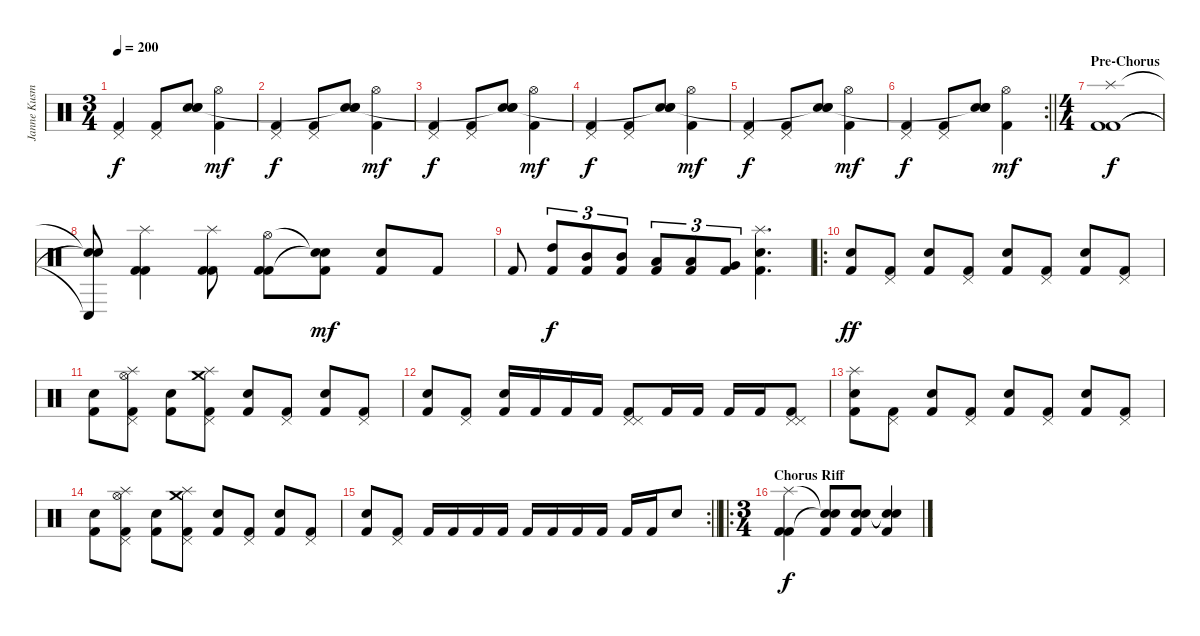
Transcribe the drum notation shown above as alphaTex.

\track ("Janne Kusmin" "Janne Kusm") {instrument percussion}
\staff {score}
\articulation defaults
\ts (3 4)
\tempo 200
\clef neutral
\ks c
("Pedal Hi-Hat (hit)" "Kick (hit) 2").4{dy f} ("Pedal Hi-Hat (hit)" "Kick (hit) 2").8 ("Snare (hit) 2" "Snare (hit) 2" "Snare (hit) 2"{t}).8 ("Hi-Hat (open)" "Kick (hit) 2").4{dy mf} |
("Pedal Hi-Hat (hit)" "Kick (hit) 2").4{dy f} ("Pedal Hi-Hat (hit)" "Kick (hit) 2").8 ("Snare (hit) 2" "Snare (hit) 2" "Snare (hit) 2"{t}).8 ("Hi-Hat (open)" "Kick (hit) 2").4{dy mf} |
("Pedal Hi-Hat (hit)" "Kick (hit) 2").4{dy f} ("Pedal Hi-Hat (hit)" "Kick (hit) 2").8 ("Snare (hit) 2" "Snare (hit) 2" "Snare (hit) 2"{t}).8 ("Hi-Hat (open)" "Kick (hit) 2").4{dy mf} |
("Pedal Hi-Hat (hit)" "Kick (hit) 2").4{dy f} ("Pedal Hi-Hat (hit)" "Kick (hit) 2").8 ("Snare (hit) 2" "Snare (hit) 2" "Snare (hit) 2"{t}).8 ("Hi-Hat (open)" "Kick (hit) 2").4{dy mf} |
("Pedal Hi-Hat (hit)" "Kick (hit) 2").4{dy f} ("Pedal Hi-Hat (hit)" "Kick (hit) 2").8 ("Snare (hit) 2" "Snare (hit) 2" "Snare (hit) 2"{t}).8 ("Hi-Hat (open)" "Kick (hit) 2").4{dy mf} |
\rc 2
\barLineRight lightlight
("Pedal Hi-Hat (hit)" "Kick (hit) 2").4{dy f} ("Pedal Hi-Hat (hit)" "Kick (hit) 2").8 ("Snare (hit) 2" "Snare (hit) 2" "Snare (hit) 2"{t}).8 ("Hi-Hat (open)" "Kick (hit) 2").4{dy mf} |
\ts (4 4)
\section ("" "Pre-Chorus")
("Splash (hit)" "Kick (hit) 2" "Kick (hit) 2").1{dy f} |
("Snare (hit)"{t} "Snare (hit)"{t} "Conga low (hit)"{t}).8 ("Splash (hit)" "Kick (hit) 2" "Kick (hit) 2").4 ("Splash (hit)" "Kick (hit) 2" "Kick (hit) 2").8 ("Hi-Hat (open)" "Kick (hit) 2" "Kick (hit) 2").8 ("Snare (hit)"{t} "Snare (hit)"{t} "Kick (hit) 2").8{dy mf} ("Snare (hit) 2" "Kick (hit) 2").8 "Kick (hit) 2".8 |
"Kick (hit) 2".8 ("High Tom (hit)" "Kick (hit) 2").8{tu (3 2) dy f} ("Mid Tom (hit)" "Kick (hit) 2").8{tu (3 2)} ("Mid Tom (hit)" "Kick (hit) 2").8{tu (3 2)} ("Low Tom (hit)" "Kick (hit) 2").8{tu (3 2)} ("Low Tom (hit)" "Kick (hit) 2").8{tu (3 2)} ("Very Low Tom (hit)" "Kick (hit) 2").8{tu (3 2)} ("Splash (hit)" "Snare (hit) 2" "Kick (hit) 2").4{d} |
\ro
("Snare (hit) 2" "Kick (hit) 2").8{dy ff} ("Pedal Hi-Hat (hit)" "Kick (hit) 2").8 ("Snare (hit) 2" "Kick (hit) 2").8 ("Pedal Hi-Hat (hit)" "Kick (hit) 2").8 ("Snare (hit) 2" "Kick (hit) 2").8 ("Pedal Hi-Hat (hit)" "Kick (hit) 2").8 ("Snare (hit) 2" "Kick (hit) 2").8 ("Pedal Hi-Hat (hit)" "Kick (hit) 2").8 |
("Snare (hit) 2" "Kick (hit) 2").8 ("Splash (hit)" "Hi-Hat (open)" "Pedal Hi-Hat (hit)" "Kick (hit) 2").8 ("Snare (hit) 2" "Kick (hit) 2").8 ("Crash medium (hit)" "Splash (hit)" "Pedal Hi-Hat (hit)" "Kick (hit) 2").8 ("Snare (hit) 2" "Kick (hit) 2").8 ("Pedal Hi-Hat (hit)" "Kick (hit) 2").8 ("Snare (hit) 2" "Kick (hit) 2").8 ("Pedal Hi-Hat (hit)" "Kick (hit) 2").8 |
("Snare (hit) 2" "Kick (hit) 2").8 ("Pedal Hi-Hat (hit)" "Kick (hit) 2").8 ("Snare (hit) 2" "Kick (hit) 2").16 "Kick (hit) 2".16 "Kick (hit) 2".16 "Kick (hit) 2".16 ("Pedal Hi-Hat (hit)" "Pedal Hi-Hat (hit)" "Kick (hit) 2").8 "Kick (hit) 2".16 "Kick (hit) 2".16 "Kick (hit) 2".16 "Kick (hit) 2".16 ("Pedal Hi-Hat (hit)" "Pedal Hi-Hat (hit)" "Kick (hit) 2").8 |
("Splash (hit)" "Snare (hit) 2" "Kick (hit) 2").8 ("Pedal Hi-Hat (hit)" "Kick (hit) 2").8 ("Snare (hit) 2" "Kick (hit) 2").8 ("Pedal Hi-Hat (hit)" "Kick (hit) 2").8 ("Snare (hit) 2" "Kick (hit) 2").8 ("Pedal Hi-Hat (hit)" "Kick (hit) 2").8 ("Snare (hit) 2" "Kick (hit) 2").8 ("Pedal Hi-Hat (hit)" "Kick (hit) 2").8 |
("Snare (hit) 2" "Kick (hit) 2").8 ("Splash (hit)" "Hi-Hat (open)" "Pedal Hi-Hat (hit)" "Kick (hit) 2").8 ("Snare (hit) 2" "Kick (hit) 2").8 ("Crash medium (hit)" "Splash (hit)" "Pedal Hi-Hat (hit)" "Kick (hit) 2").8 ("Snare (hit) 2" "Kick (hit) 2").8 ("Pedal Hi-Hat (hit)" "Kick (hit) 2").8 ("Snare (hit) 2" "Kick (hit) 2").8 ("Pedal Hi-Hat (hit)" "Kick (hit) 2").8 |
\rc 2
\barLineRight lightlight
("Snare (hit) 2" "Kick (hit) 2").8 ("Pedal Hi-Hat (hit)" "Kick (hit) 2").8 "Kick (hit) 2".16 "Kick (hit) 2".16 "Kick (hit) 2".16 "Kick (hit) 2".16 "Kick (hit) 2".16 "Kick (hit) 2".16 "Kick (hit) 2".16 "Kick (hit) 2".16 "Kick (hit) 2".16 "Kick (hit) 2".16 "Snare (hit) 2".8 |
\ro
\ts (3 4)
\section ("" "Chorus Riff")
("Splash (hit)" "Kick (hit) 2" "Kick (hit) 2").4{dy f} ("Snare (hit)"{t} "Snare (hit)"{t} "Kick (hit) 2").8 ("Snare (hit) 2" "Snare (hit) 2" "Kick (hit) 2").8 ("Snare (hit)"{t} "Snare (hit)"{t} "Kick (hit) 2").4
